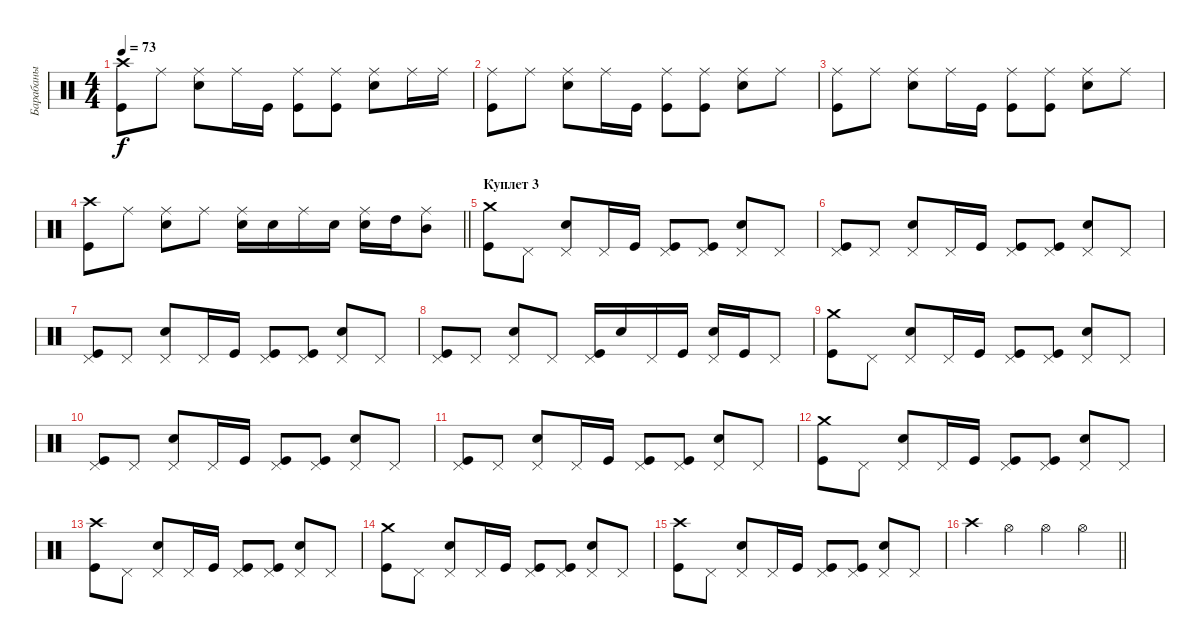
\track ("Барабаны" "Барабаны") {instrument percussion}
\staff {score}
\articulation defaults
\ts (4 4)
\tempo 73
\clef neutral
\ks c
("Kick (hit)" "Crash high (hit)").8{dy f} "Ride (middle)".8 ("Snare (hit) 2" "Ride (middle)").8 "Ride (middle)".16 "Kick (hit)".16 ("Kick (hit)" "Ride (middle)").8 ("Kick (hit)" "Ride (middle)").8 ("Snare (hit) 2" "Ride (middle)").8 "Ride (middle)".16 "Ride (middle)".16 |
("Kick (hit)" "Ride (middle)").8 "Ride (middle)".8 ("Snare (hit) 2" "Ride (middle)").8 "Ride (middle)".16 "Kick (hit)".16 ("Kick (hit)" "Ride (middle)").8 ("Kick (hit)" "Ride (middle)").8 ("Snare (hit) 2" "Ride (middle)").8 "Ride (middle)".8 |
("Kick (hit)" "Ride (middle)").8 "Ride (middle)".8 ("Snare (hit) 2" "Ride (middle)").8 "Ride (middle)".16 "Kick (hit)".16 ("Kick (hit)" "Ride (middle)").8 ("Kick (hit)" "Ride (middle)").8 ("Snare (hit) 2" "Ride (middle)").8 "Ride (middle)".8 |
\barLineRight lightlight
("Kick (hit)" "Crash high (hit)").8 "Ride (middle)".8 ("Snare (hit) 2" "Ride (middle)").8 "Ride (middle)".8 ("Snare (hit) 2" "Ride (middle)").16 "Snare (hit) 2".16 "Ride (middle)".16 "Snare (hit) 2".16 ("Snare (hit) 2" "Ride (middle)").16 "High Tom (hit)".16 ("Mid Tom (hit)" "Ride (middle)").8 |
\section ("" "Куплет 3")
("Kick (hit)" "Crash medium (hit)").8 "Pedal Hi-Hat (hit)".8 ("Snare (hit) 2" "Pedal Hi-Hat (hit)").8 "Pedal Hi-Hat (hit)".16 "Kick (hit)".16 ("Kick (hit)" "Pedal Hi-Hat (hit)").8 ("Kick (hit)" "Pedal Hi-Hat (hit)").8 ("Snare (hit) 2" "Pedal Hi-Hat (hit)").8 "Pedal Hi-Hat (hit)".8 |
("Kick (hit)" "Pedal Hi-Hat (hit)").8 "Pedal Hi-Hat (hit)".8 ("Snare (hit) 2" "Pedal Hi-Hat (hit)").8 "Pedal Hi-Hat (hit)".16 "Kick (hit)".16 ("Kick (hit)" "Pedal Hi-Hat (hit)").8 ("Kick (hit)" "Pedal Hi-Hat (hit)").8 ("Snare (hit) 2" "Pedal Hi-Hat (hit)").8 "Pedal Hi-Hat (hit)".8 |
("Kick (hit)" "Pedal Hi-Hat (hit)").8 "Pedal Hi-Hat (hit)".8 ("Snare (hit) 2" "Pedal Hi-Hat (hit)").8 "Pedal Hi-Hat (hit)".16 "Kick (hit)".16 ("Kick (hit)" "Pedal Hi-Hat (hit)").8 ("Kick (hit)" "Pedal Hi-Hat (hit)").8 ("Snare (hit) 2" "Pedal Hi-Hat (hit)").8 "Pedal Hi-Hat (hit)".8 |
("Kick (hit)" "Pedal Hi-Hat (hit)").8 "Pedal Hi-Hat (hit)".8 ("Snare (hit) 2" "Pedal Hi-Hat (hit)").8 "Pedal Hi-Hat (hit)".8 ("Kick (hit)" "Pedal Hi-Hat (hit)").16 "Snare (hit) 2".16 "Pedal Hi-Hat (hit)".16 "Kick (hit)".16 ("Snare (hit) 2" "Pedal Hi-Hat (hit)").16 "Kick (hit)".16 "Pedal Hi-Hat (hit)".8 |
("Kick (hit)" "Crash medium (hit)").8 "Pedal Hi-Hat (hit)".8 ("Snare (hit) 2" "Pedal Hi-Hat (hit)").8 "Pedal Hi-Hat (hit)".16 "Kick (hit)".16 ("Kick (hit)" "Pedal Hi-Hat (hit)").8 ("Kick (hit)" "Pedal Hi-Hat (hit)").8 ("Snare (hit) 2" "Pedal Hi-Hat (hit)").8 "Pedal Hi-Hat (hit)".8 |
("Kick (hit)" "Pedal Hi-Hat (hit)").8 "Pedal Hi-Hat (hit)".8 ("Snare (hit) 2" "Pedal Hi-Hat (hit)").8 "Pedal Hi-Hat (hit)".16 "Kick (hit)".16 ("Kick (hit)" "Pedal Hi-Hat (hit)").8 ("Kick (hit)" "Pedal Hi-Hat (hit)").8 ("Snare (hit) 2" "Pedal Hi-Hat (hit)").8 "Pedal Hi-Hat (hit)".8 |
("Kick (hit)" "Pedal Hi-Hat (hit)").8 "Pedal Hi-Hat (hit)".8 ("Snare (hit) 2" "Pedal Hi-Hat (hit)").8 "Pedal Hi-Hat (hit)".16 "Kick (hit)".16 ("Kick (hit)" "Pedal Hi-Hat (hit)").8 ("Kick (hit)" "Pedal Hi-Hat (hit)").8 ("Snare (hit) 2" "Pedal Hi-Hat (hit)").8 "Pedal Hi-Hat (hit)".8 |
("Kick (hit)" "Crash medium (hit)").8 "Pedal Hi-Hat (hit)".8 ("Snare (hit) 2" "Pedal Hi-Hat (hit)").8 "Pedal Hi-Hat (hit)".16 "Kick (hit)".16 ("Kick (hit)" "Pedal Hi-Hat (hit)").8 ("Kick (hit)" "Pedal Hi-Hat (hit)").8 ("Snare (hit) 2" "Pedal Hi-Hat (hit)").8 "Pedal Hi-Hat (hit)".8 |
("Kick (hit)" "Crash high (hit)").8 "Pedal Hi-Hat (hit)".8 ("Snare (hit) 2" "Pedal Hi-Hat (hit)").8 "Pedal Hi-Hat (hit)".16 "Kick (hit)".16 ("Kick (hit)" "Pedal Hi-Hat (hit)").8 ("Kick (hit)" "Pedal Hi-Hat (hit)").8 ("Snare (hit) 2" "Pedal Hi-Hat (hit)").8 "Pedal Hi-Hat (hit)".8 |
("Kick (hit)" "Crash medium (hit)").8 "Pedal Hi-Hat (hit)".8 ("Snare (hit) 2" "Pedal Hi-Hat (hit)").8 "Pedal Hi-Hat (hit)".16 "Kick (hit)".16 ("Kick (hit)" "Pedal Hi-Hat (hit)").8 ("Kick (hit)" "Pedal Hi-Hat (hit)").8 ("Snare (hit) 2" "Pedal Hi-Hat (hit)").8 "Pedal Hi-Hat (hit)".8 |
("Kick (hit)" "Crash high (hit)").8 "Pedal Hi-Hat (hit)".8 ("Snare (hit) 2" "Pedal Hi-Hat (hit)").8 "Pedal Hi-Hat (hit)".16 "Kick (hit)".16 ("Kick (hit)" "Pedal Hi-Hat (hit)").8 ("Kick (hit)" "Pedal Hi-Hat (hit)").8 ("Snare (hit) 2" "Pedal Hi-Hat (hit)").8 "Pedal Hi-Hat (hit)".8 |
\barLineRight lightlight "Crash high (hit)".4 "Hi-Hat (open)".4 "Hi-Hat (open)".4 "Hi-Hat (open)".4
